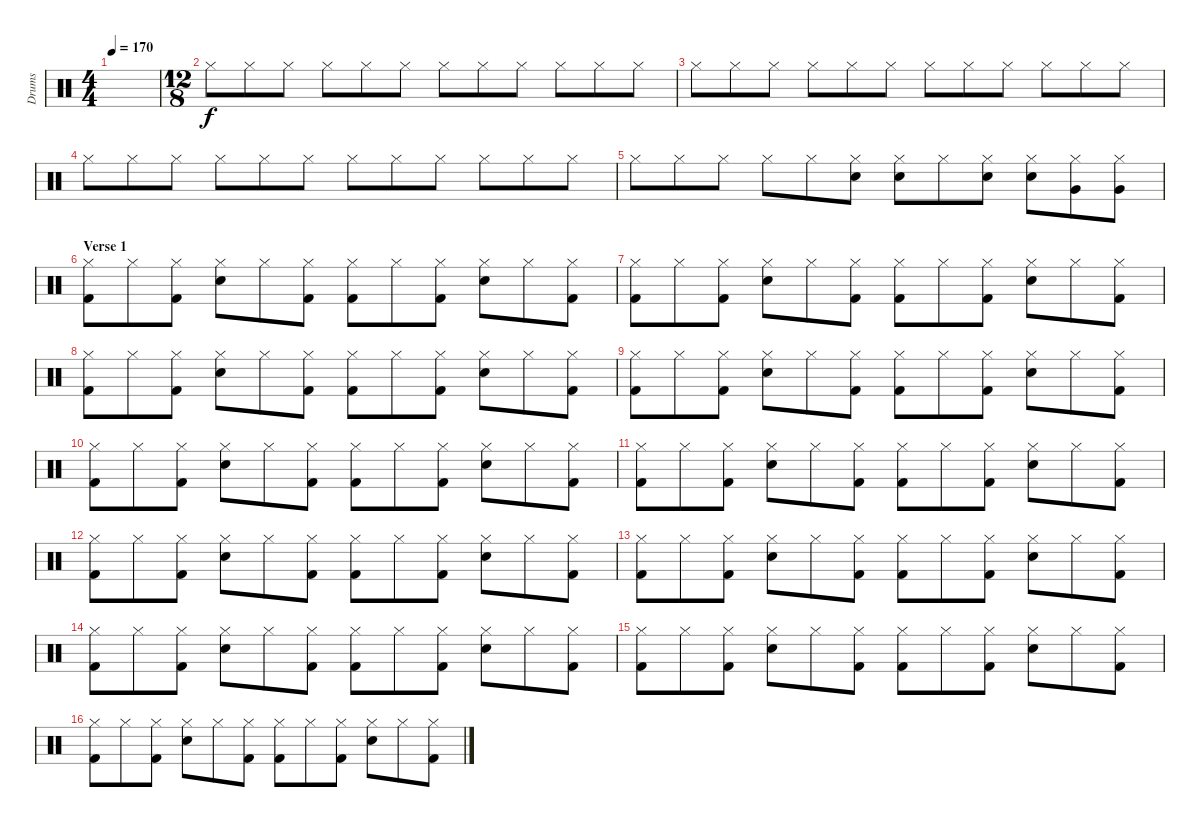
\track ("Drums" "Drums") {instrument percussion}
\staff {score}
\articulation defaults
\ts (4 4)
\tempo 170
\clef neutral
\ks c
|
\ts (12 8)
"Hi-Hat (closed)".8 "Hi-Hat (closed)".8 "Hi-Hat (closed)".8 "Hi-Hat (closed)".8 "Hi-Hat (closed)".8 "Hi-Hat (closed)".8 "Hi-Hat (closed)".8 "Hi-Hat (closed)".8 "Hi-Hat (closed)".8 "Hi-Hat (closed)".8 "Hi-Hat (closed)".8 "Hi-Hat (closed)".8 |
"Hi-Hat (closed)".8 "Hi-Hat (closed)".8 "Hi-Hat (closed)".8 "Hi-Hat (closed)".8 "Hi-Hat (closed)".8 "Hi-Hat (closed)".8 "Hi-Hat (closed)".8 "Hi-Hat (closed)".8 "Hi-Hat (closed)".8 "Hi-Hat (closed)".8 "Hi-Hat (closed)".8 "Hi-Hat (closed)".8 |
"Hi-Hat (closed)".8 "Hi-Hat (closed)".8 "Hi-Hat (closed)".8 "Hi-Hat (closed)".8 "Hi-Hat (closed)".8 "Hi-Hat (closed)".8 "Hi-Hat (closed)".8 "Hi-Hat (closed)".8 "Hi-Hat (closed)".8 "Hi-Hat (closed)".8 "Hi-Hat (closed)".8 "Hi-Hat (closed)".8 |
"Hi-Hat (closed)".8 "Hi-Hat (closed)".8 "Hi-Hat (closed)".8 "Hi-Hat (closed)".8 "Hi-Hat (closed)".8 ("Snare (hit) 2" "Hi-Hat (closed)").8 ("Snare (hit) 2" "Hi-Hat (closed)").8 "Hi-Hat (closed)".8 ("Snare (hit) 2" "Hi-Hat (closed)").8 ("Snare (hit) 2" "Hi-Hat (closed)").8 ("Very Low Tom (hit)" "Hi-Hat (closed)").8 ("Very Low Tom (hit)" "Hi-Hat (closed)").8 |
\section ("" "Verse 1")
("Kick (hit) 2" "Hi-Hat (closed)").8 "Hi-Hat (closed)".8 ("Kick (hit) 2" "Hi-Hat (closed)").8 ("Snare (hit) 2" "Hi-Hat (closed)").8 "Hi-Hat (closed)".8 ("Kick (hit) 2" "Hi-Hat (closed)").8 ("Kick (hit) 2" "Hi-Hat (closed)").8 "Hi-Hat (closed)".8 ("Kick (hit) 2" "Hi-Hat (closed)").8 ("Snare (hit) 2" "Hi-Hat (closed)").8 "Hi-Hat (closed)".8 ("Kick (hit) 2" "Hi-Hat (closed)").8 |
("Kick (hit) 2" "Hi-Hat (closed)").8 "Hi-Hat (closed)".8 ("Kick (hit) 2" "Hi-Hat (closed)").8 ("Snare (hit) 2" "Hi-Hat (closed)").8 "Hi-Hat (closed)".8 ("Kick (hit) 2" "Hi-Hat (closed)").8 ("Kick (hit) 2" "Hi-Hat (closed)").8 "Hi-Hat (closed)".8 ("Kick (hit) 2" "Hi-Hat (closed)").8 ("Snare (hit) 2" "Hi-Hat (closed)").8 "Hi-Hat (closed)".8 ("Kick (hit) 2" "Hi-Hat (closed)").8 |
("Kick (hit) 2" "Hi-Hat (closed)").8 "Hi-Hat (closed)".8 ("Kick (hit) 2" "Hi-Hat (closed)").8 ("Snare (hit) 2" "Hi-Hat (closed)").8 "Hi-Hat (closed)".8 ("Kick (hit) 2" "Hi-Hat (closed)").8 ("Kick (hit) 2" "Hi-Hat (closed)").8 "Hi-Hat (closed)".8 ("Kick (hit) 2" "Hi-Hat (closed)").8 ("Snare (hit) 2" "Hi-Hat (closed)").8 "Hi-Hat (closed)".8 ("Kick (hit) 2" "Hi-Hat (closed)").8 |
("Kick (hit) 2" "Hi-Hat (closed)").8 "Hi-Hat (closed)".8 ("Kick (hit) 2" "Hi-Hat (closed)").8 ("Snare (hit) 2" "Hi-Hat (closed)").8 "Hi-Hat (closed)".8 ("Kick (hit) 2" "Hi-Hat (closed)").8 ("Kick (hit) 2" "Hi-Hat (closed)").8 "Hi-Hat (closed)".8 ("Kick (hit) 2" "Hi-Hat (closed)").8 ("Snare (hit) 2" "Hi-Hat (closed)").8 "Hi-Hat (closed)".8 ("Kick (hit) 2" "Hi-Hat (closed)").8 |
("Kick (hit) 2" "Hi-Hat (closed)").8 "Hi-Hat (closed)".8 ("Kick (hit) 2" "Hi-Hat (closed)").8 ("Snare (hit) 2" "Hi-Hat (closed)").8 "Hi-Hat (closed)".8 ("Kick (hit) 2" "Hi-Hat (closed)").8 ("Kick (hit) 2" "Hi-Hat (closed)").8 "Hi-Hat (closed)".8 ("Kick (hit) 2" "Hi-Hat (closed)").8 ("Snare (hit) 2" "Hi-Hat (closed)").8 "Hi-Hat (closed)".8 ("Kick (hit) 2" "Hi-Hat (closed)").8 |
("Kick (hit) 2" "Hi-Hat (closed)").8 "Hi-Hat (closed)".8 ("Kick (hit) 2" "Hi-Hat (closed)").8 ("Snare (hit) 2" "Hi-Hat (closed)").8 "Hi-Hat (closed)".8 ("Kick (hit) 2" "Hi-Hat (closed)").8 ("Kick (hit) 2" "Hi-Hat (closed)").8 "Hi-Hat (closed)".8 ("Kick (hit) 2" "Hi-Hat (closed)").8 ("Snare (hit) 2" "Hi-Hat (closed)").8 "Hi-Hat (closed)".8 ("Kick (hit) 2" "Hi-Hat (closed)").8 |
("Kick (hit) 2" "Hi-Hat (closed)").8 "Hi-Hat (closed)".8 ("Kick (hit) 2" "Hi-Hat (closed)").8 ("Snare (hit) 2" "Hi-Hat (closed)").8 "Hi-Hat (closed)".8 ("Kick (hit) 2" "Hi-Hat (closed)").8 ("Kick (hit) 2" "Hi-Hat (closed)").8 "Hi-Hat (closed)".8 ("Kick (hit) 2" "Hi-Hat (closed)").8 ("Snare (hit) 2" "Hi-Hat (closed)").8 "Hi-Hat (closed)".8 ("Kick (hit) 2" "Hi-Hat (closed)").8 |
("Kick (hit) 2" "Hi-Hat (closed)").8 "Hi-Hat (closed)".8 ("Kick (hit) 2" "Hi-Hat (closed)").8 ("Snare (hit) 2" "Hi-Hat (closed)").8 "Hi-Hat (closed)".8 ("Kick (hit) 2" "Hi-Hat (closed)").8 ("Kick (hit) 2" "Hi-Hat (closed)").8 "Hi-Hat (closed)".8 ("Kick (hit) 2" "Hi-Hat (closed)").8 ("Snare (hit) 2" "Hi-Hat (closed)").8 "Hi-Hat (closed)".8 ("Kick (hit) 2" "Hi-Hat (closed)").8 |
("Kick (hit) 2" "Hi-Hat (closed)").8 "Hi-Hat (closed)".8 ("Kick (hit) 2" "Hi-Hat (closed)").8 ("Snare (hit) 2" "Hi-Hat (closed)").8 "Hi-Hat (closed)".8 ("Kick (hit) 2" "Hi-Hat (closed)").8 ("Kick (hit) 2" "Hi-Hat (closed)").8 "Hi-Hat (closed)".8 ("Kick (hit) 2" "Hi-Hat (closed)").8 ("Snare (hit) 2" "Hi-Hat (closed)").8 "Hi-Hat (closed)".8 ("Kick (hit) 2" "Hi-Hat (closed)").8 |
("Kick (hit) 2" "Hi-Hat (closed)").8 "Hi-Hat (closed)".8 ("Kick (hit) 2" "Hi-Hat (closed)").8 ("Snare (hit) 2" "Hi-Hat (closed)").8 "Hi-Hat (closed)".8 ("Kick (hit) 2" "Hi-Hat (closed)").8 ("Kick (hit) 2" "Hi-Hat (closed)").8 "Hi-Hat (closed)".8 ("Kick (hit) 2" "Hi-Hat (closed)").8 ("Snare (hit) 2" "Hi-Hat (closed)").8 "Hi-Hat (closed)".8 ("Kick (hit) 2" "Hi-Hat (closed)").8 |
("Kick (hit) 2" "Hi-Hat (closed)").8 "Hi-Hat (closed)".8 ("Kick (hit) 2" "Hi-Hat (closed)").8 ("Snare (hit) 2" "Hi-Hat (closed)").8 "Hi-Hat (closed)".8 ("Kick (hit) 2" "Hi-Hat (closed)").8 ("Kick (hit) 2" "Hi-Hat (closed)").8 "Hi-Hat (closed)".8 ("Kick (hit) 2" "Hi-Hat (closed)").8 ("Snare (hit) 2" "Hi-Hat (closed)").8 "Hi-Hat (closed)".8 ("Kick (hit) 2" "Hi-Hat (closed)").8
